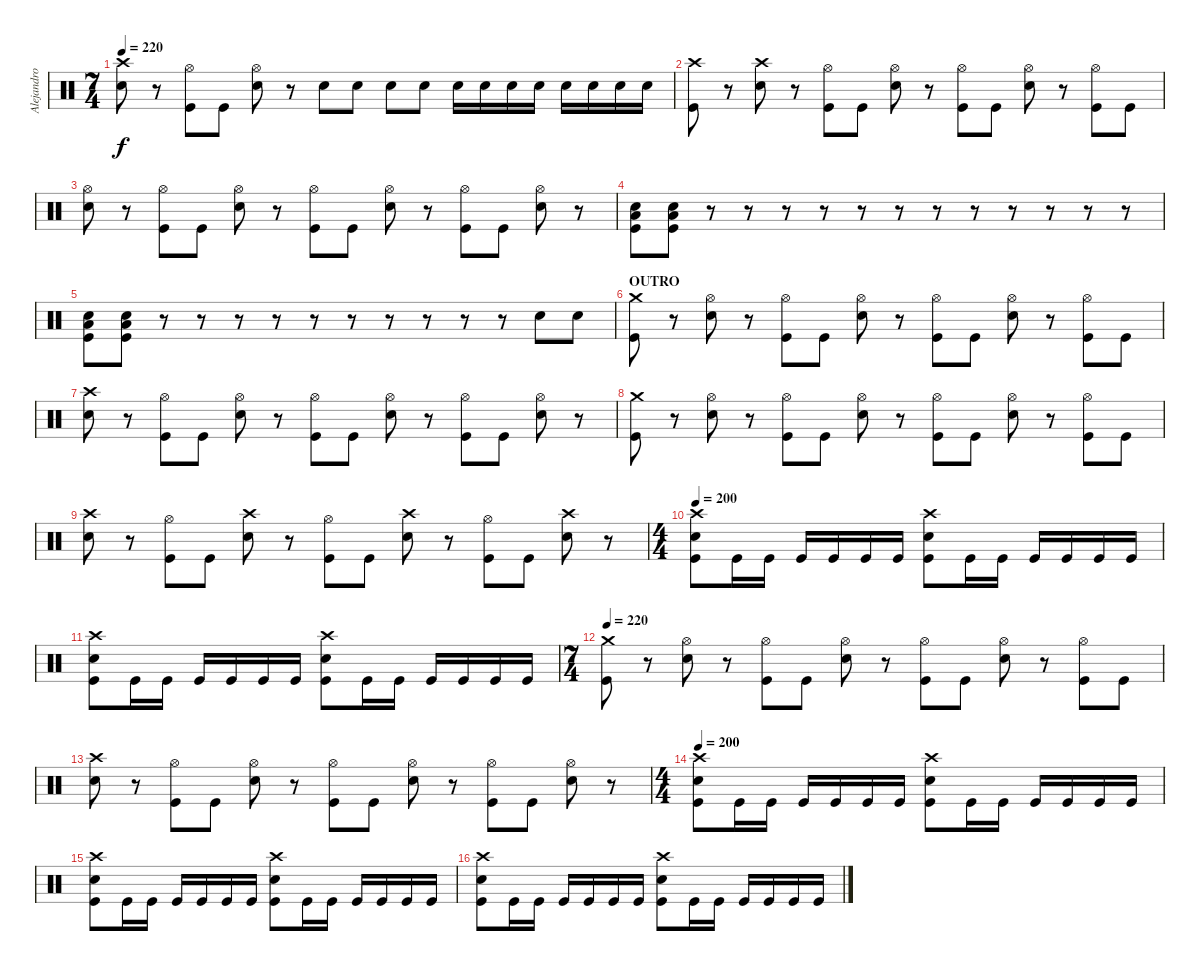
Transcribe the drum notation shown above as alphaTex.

\track ("Alejandro M. (Bateria)" "Alejandro ") {instrument percussion}
\staff {score}
\articulation defaults
\ts (7 4)
\tempo 220
\clef neutral
\ks c
("Crash high (hit)" "Snare (hit) 2").8{dy f} r.8 ("Hi-Hat (open)" "Kick (hit)").8 "Kick (hit)".8 ("Hi-Hat (open)" "Snare (hit) 2").8 r.8 "Snare (hit) 2".8 "Snare (hit) 2".8 "Snare (hit) 2".8 "Snare (hit) 2".8 "Snare (hit) 2".16 "Snare (hit) 2".16 "Snare (hit) 2".16 "Snare (hit) 2".16 "Snare (hit) 2".16 "Snare (hit) 2".16 "Snare (hit) 2".16 "Snare (hit) 2".16 |
("Crash high (hit)" "Kick (hit)").8 r.8 ("Crash high (hit)" "Snare (hit) 2").8 r.8 ("Hi-Hat (open)" "Kick (hit)").8 "Kick (hit)".8 ("Hi-Hat (open)" "Snare (hit) 2").8 r.8 ("Hi-Hat (open)" "Kick (hit)").8 "Kick (hit)".8 ("Hi-Hat (open)" "Snare (hit) 2").8 r.8 ("Hi-Hat (open)" "Kick (hit)").8 "Kick (hit)".8 |
("Hi-Hat (open)" "Snare (hit) 2").8 r.8 ("Hi-Hat (open)" "Kick (hit)").8 "Kick (hit)".8 ("Hi-Hat (open)" "Snare (hit) 2").8 r.8 ("Hi-Hat (open)" "Kick (hit)").8 "Kick (hit)".8 ("Hi-Hat (open)" "Snare (hit) 2").8 r.8 ("Hi-Hat (open)" "Kick (hit)").8 "Kick (hit)".8 ("Hi-Hat (open)" "Snare (hit) 2").8 r.8 |
("Low Tom (hit)" "Snare (hit) 2" "Kick (hit)").8 ("Low Tom (hit)" "Snare (hit) 2" "Kick (hit)").8 r.8 r.8 r.8 r.8 r.8 r.8 r.8 r.8 r.8 r.8 r.8 r.8 |
("Low Tom (hit)" "Snare (hit) 2" "Kick (hit)").8 ("Low Tom (hit)" "Snare (hit) 2" "Kick (hit)").8 r.8 r.8 r.8 r.8 r.8 r.8 r.8 r.8 r.8 r.8 "Snare (hit) 2".8 "Snare (hit) 2".8 |
\section ("" "OUTRO")
("Crash medium (hit)" "Kick (hit)").8 r.8 ("Hi-Hat (open)" "Snare (hit) 2").8 r.8 ("Hi-Hat (open)" "Kick (hit)").8 "Kick (hit)".8 ("Hi-Hat (open)" "Snare (hit) 2").8 r.8 ("Hi-Hat (open)" "Kick (hit)").8 "Kick (hit)".8 ("Hi-Hat (open)" "Snare (hit) 2").8 r.8 ("Hi-Hat (open)" "Kick (hit)").8 "Kick (hit)".8 |
("Crash high (hit)" "Snare (hit) 2").8 r.8 ("Hi-Hat (open)" "Kick (hit)").8 "Kick (hit)".8 ("Hi-Hat (open)" "Snare (hit) 2").8 r.8 ("Hi-Hat (open)" "Kick (hit)").8 "Kick (hit)".8 ("Hi-Hat (open)" "Snare (hit) 2").8 r.8 ("Hi-Hat (open)" "Kick (hit)").8 "Kick (hit)".8 ("Hi-Hat (open)" "Snare (hit) 2").8 r.8 |
("Crash medium (hit)" "Kick (hit)").8 r.8 ("Hi-Hat (open)" "Snare (hit) 2").8 r.8 ("Hi-Hat (open)" "Kick (hit)").8 "Kick (hit)".8 ("Hi-Hat (open)" "Snare (hit) 2").8 r.8 ("Hi-Hat (open)" "Kick (hit)").8 "Kick (hit)".8 ("Hi-Hat (open)" "Snare (hit) 2").8 r.8 ("Hi-Hat (open)" "Kick (hit)").8 "Kick (hit)".8 |
("Crash high (hit)" "Snare (hit) 2").8 r.8 ("Hi-Hat (open)" "Kick (hit)").8 "Kick (hit)".8 ("Crash high (hit)" "Snare (hit) 2").8 r.8 ("Hi-Hat (open)" "Kick (hit)").8 "Kick (hit)".8 ("Crash high (hit)" "Snare (hit) 2").8 r.8 ("Hi-Hat (open)" "Kick (hit)").8 "Kick (hit)".8 ("Crash high (hit)" "Snare (hit) 2").8 r.8 |
\ts (4 4)
\tempo 200
("Crash high (hit)" "Snare (hit) 2" "Kick (hit)").8 "Kick (hit)".16 "Kick (hit)".16 "Kick (hit)".16 "Kick (hit)".16 "Kick (hit)".16 "Kick (hit)".16 ("Crash high (hit)" "Snare (hit) 2" "Kick (hit)").8 "Kick (hit)".16 "Kick (hit)".16 "Kick (hit)".16 "Kick (hit)".16 "Kick (hit)".16 "Kick (hit)".16 |
("Crash high (hit)" "Snare (hit) 2" "Kick (hit)").8 "Kick (hit)".16 "Kick (hit)".16 "Kick (hit)".16 "Kick (hit)".16 "Kick (hit)".16 "Kick (hit)".16 ("Crash high (hit)" "Snare (hit) 2" "Kick (hit)").8 "Kick (hit)".16 "Kick (hit)".16 "Kick (hit)".16 "Kick (hit)".16 "Kick (hit)".16 "Kick (hit)".16 |
\ts (7 4)
\tempo 220
("Crash medium (hit)" "Kick (hit)").8 r.8 ("Hi-Hat (open)" "Snare (hit) 2").8 r.8 ("Hi-Hat (open)" "Kick (hit)").8 "Kick (hit)".8 ("Hi-Hat (open)" "Snare (hit) 2").8 r.8 ("Hi-Hat (open)" "Kick (hit)").8 "Kick (hit)".8 ("Hi-Hat (open)" "Snare (hit) 2").8 r.8 ("Hi-Hat (open)" "Kick (hit)").8 "Kick (hit)".8 |
("Crash high (hit)" "Snare (hit) 2").8 r.8 ("Hi-Hat (open)" "Kick (hit)").8 "Kick (hit)".8 ("Hi-Hat (open)" "Snare (hit) 2").8 r.8 ("Hi-Hat (open)" "Kick (hit)").8 "Kick (hit)".8 ("Hi-Hat (open)" "Snare (hit) 2").8 r.8 ("Hi-Hat (open)" "Kick (hit)").8 "Kick (hit)".8 ("Hi-Hat (open)" "Snare (hit) 2").8 r.8 |
\ts (4 4)
\tempo 200
("Crash high (hit)" "Snare (hit) 2" "Kick (hit)").8 "Kick (hit)".16 "Kick (hit)".16 "Kick (hit)".16 "Kick (hit)".16 "Kick (hit)".16 "Kick (hit)".16 ("Crash high (hit)" "Snare (hit) 2" "Kick (hit)").8 "Kick (hit)".16 "Kick (hit)".16 "Kick (hit)".16 "Kick (hit)".16 "Kick (hit)".16 "Kick (hit)".16 |
("Crash high (hit)" "Snare (hit) 2" "Kick (hit)").8 "Kick (hit)".16 "Kick (hit)".16 "Kick (hit)".16 "Kick (hit)".16 "Kick (hit)".16 "Kick (hit)".16 ("Crash high (hit)" "Snare (hit) 2" "Kick (hit)").8 "Kick (hit)".16 "Kick (hit)".16 "Kick (hit)".16 "Kick (hit)".16 "Kick (hit)".16 "Kick (hit)".16 |
("Crash high (hit)" "Snare (hit) 2" "Kick (hit)").8 "Kick (hit)".16 "Kick (hit)".16 "Kick (hit)".16 "Kick (hit)".16 "Kick (hit)".16 "Kick (hit)".16 ("Crash high (hit)" "Snare (hit) 2" "Kick (hit)").8 "Kick (hit)".16 "Kick (hit)".16 "Kick (hit)".16 "Kick (hit)".16 "Kick (hit)".16 "Kick (hit)".16
